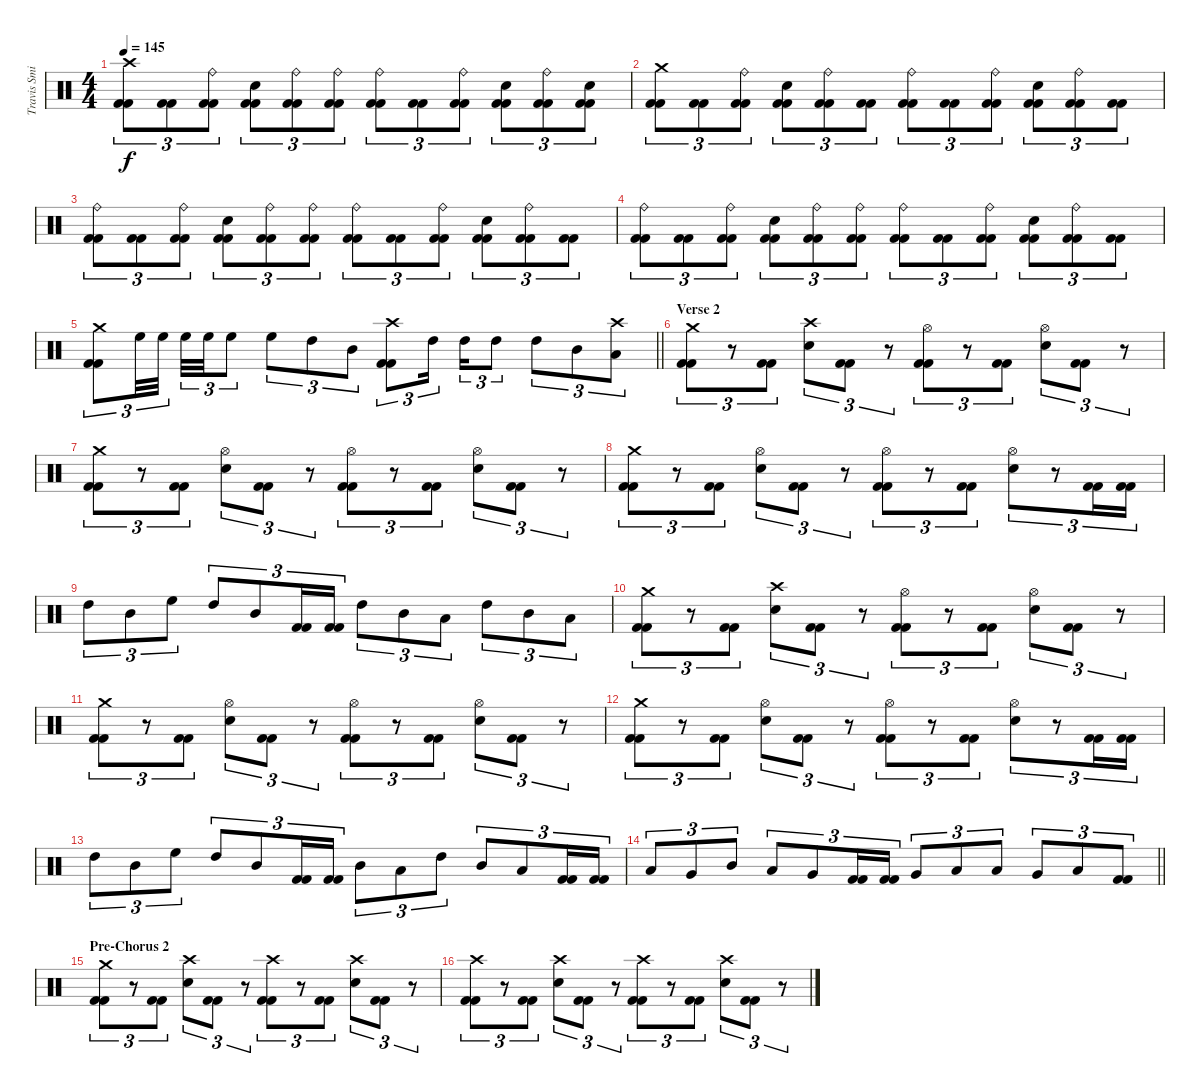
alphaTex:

\track ("Travis Smith" "Travis Smi") {instrument percussion}
\staff {score}
\articulation defaults
\ts (4 4)
\tempo 145
\clef neutral
\ks c
("Crash high (hit)" "Kick (hit) 2" "Kick (hit) 2").8{tu (3 2) dy f} ("Kick (hit) 2" "Kick (hit) 2").8{tu (3 2)} ("Ride (bell)" "Kick (hit) 2" "Kick (hit) 2").8{tu (3 2)} ("Electric Snare (hit)" "Kick (hit) 2" "Kick (hit) 2").8{tu (3 2)} ("Ride (bell)" "Kick (hit) 2" "Kick (hit) 2").8{tu (3 2)} ("Ride (bell)" "Kick (hit) 2" "Kick (hit) 2").8{tu (3 2)} ("Ride (bell)" "Kick (hit) 2" "Kick (hit) 2").8{tu (3 2)} ("Kick (hit) 2" "Kick (hit) 2").8{tu (3 2)} ("Ride (bell)" "Kick (hit) 2" "Kick (hit) 2").8{tu (3 2)} ("Electric Snare (hit)" "Kick (hit) 2" "Kick (hit) 2").8{tu (3 2)} ("Ride (bell)" "Kick (hit) 2" "Kick (hit) 2").8{tu (3 2)} ("Electric Snare (hit)" "Kick (hit) 2" "Kick (hit) 2").8{tu (3 2)} |
("Crash medium (hit)" "Kick (hit) 2" "Kick (hit) 2").8{tu (3 2)} ("Kick (hit) 2" "Kick (hit) 2").8{tu (3 2)} ("Ride (bell)" "Kick (hit) 2" "Kick (hit) 2").8{tu (3 2)} ("Electric Snare (hit)" "Kick (hit) 2" "Kick (hit) 2").8{tu (3 2)} ("Ride (bell)" "Kick (hit) 2" "Kick (hit) 2").8{tu (3 2)} ("Kick (hit) 2" "Kick (hit) 2").8{tu (3 2)} ("Ride (bell)" "Kick (hit) 2" "Kick (hit) 2").8{tu (3 2)} ("Kick (hit) 2" "Kick (hit) 2").8{tu (3 2)} ("Ride (bell)" "Kick (hit) 2" "Kick (hit) 2").8{tu (3 2)} ("Electric Snare (hit)" "Kick (hit) 2" "Kick (hit) 2").8{tu (3 2)} ("Ride (bell)" "Kick (hit) 2" "Kick (hit) 2").8{tu (3 2)} ("Kick (hit) 2" "Kick (hit) 2").8{tu (3 2)} |
("Ride (bell)" "Kick (hit) 2" "Kick (hit) 2").8{tu (3 2)} ("Kick (hit) 2" "Kick (hit) 2").8{tu (3 2)} ("Ride (bell)" "Kick (hit) 2" "Kick (hit) 2").8{tu (3 2)} ("Electric Snare (hit)" "Kick (hit) 2" "Kick (hit) 2").8{tu (3 2)} ("Ride (bell)" "Kick (hit) 2" "Kick (hit) 2").8{tu (3 2)} ("Ride (bell)" "Kick (hit) 2" "Kick (hit) 2").8{tu (3 2)} ("Ride (bell)" "Kick (hit) 2" "Kick (hit) 2").8{tu (3 2)} ("Kick (hit) 2" "Kick (hit) 2").8{tu (3 2)} ("Ride (bell)" "Kick (hit) 2" "Kick (hit) 2").8{tu (3 2)} ("Electric Snare (hit)" "Kick (hit) 2" "Kick (hit) 2").8{tu (3 2)} ("Ride (bell)" "Kick (hit) 2" "Kick (hit) 2").8{tu (3 2)} ("Kick (hit) 2" "Kick (hit) 2").8{tu (3 2)} |
("Ride (bell)" "Kick (hit) 2" "Kick (hit) 2").8{tu (3 2)} ("Kick (hit) 2" "Kick (hit) 2").8{tu (3 2)} ("Ride (bell)" "Kick (hit) 2" "Kick (hit) 2").8{tu (3 2)} ("Electric Snare (hit)" "Kick (hit) 2" "Kick (hit) 2").8{tu (3 2)} ("Ride (bell)" "Kick (hit) 2" "Kick (hit) 2").8{tu (3 2)} ("Ride (bell)" "Kick (hit) 2" "Kick (hit) 2").8{tu (3 2)} ("Ride (bell)" "Kick (hit) 2" "Kick (hit) 2").8{tu (3 2)} ("Kick (hit) 2" "Kick (hit) 2").8{tu (3 2)} ("Ride (bell)" "Kick (hit) 2" "Kick (hit) 2").8{tu (3 2)} ("Electric Snare (hit)" "Kick (hit) 2" "Kick (hit) 2").8{tu (3 2)} ("Ride (bell)" "Kick (hit) 2" "Kick (hit) 2").8{tu (3 2)} ("Kick (hit) 2" "Kick (hit) 2").8{tu (3 2)} |
\barLineRight lightlight
("Crash medium (hit)" "Kick (hit) 2" "Kick (hit) 2").8{tu (3 2)} "High Floor Tom (hit)".32{tu (3 2)} "High Floor Tom (hit)".32{tu (3 2) beam splitsecondary} "High Floor Tom (hit)".32{tu (3 2)} "High Floor Tom (hit)".32{tu (3 2)} "High Floor Tom (hit)".8{tu (3 2)} "High Floor Tom (hit)".8{tu (3 2)} "High Tom (hit)".8{tu (3 2)} "Mid Tom (hit)".8{tu (3 2)} ("Crash high (hit)" "Kick (hit) 2" "Kick (hit) 2").8{tu (3 2)} "High Tom (hit)".16{tu (3 2) beam splitsecondary} "High Tom (hit)".16{tu (3 2)} "High Tom (hit)".8{tu (3 2)} "High Tom (hit)".8{tu (3 2)} "Mid Tom (hit)".8{tu (3 2)} ("Crash high (hit)" "Low Tom (hit)").8{tu (3 2)} |
\section ("" "Verse 2")
("Crash medium (hit)" "Kick (hit) 2" "Kick (hit) 2").8{tu (3 2)} r.8{tu (3 2)} ("Kick (hit) 2" "Kick (hit) 2").8{tu (3 2)} ("Crash high (hit)" "Electric Snare (hit)").8{tu (3 2)} ("Kick (hit) 2" "Kick (hit) 2").8{tu (3 2)} r.8{tu (3 2)} ("Hi-Hat (open)" "Kick (hit) 2" "Kick (hit) 2").8{tu (3 2)} r.8{tu (3 2)} ("Kick (hit) 2" "Kick (hit) 2").8{tu (3 2)} ("Hi-Hat (open)" "Electric Snare (hit)").8{tu (3 2)} ("Kick (hit) 2" "Kick (hit) 2").8{tu (3 2)} r.8{tu (3 2)} |
("Crash medium (hit)" "Kick (hit) 2" "Kick (hit) 2").8{tu (3 2)} r.8{tu (3 2)} ("Kick (hit) 2" "Kick (hit) 2").8{tu (3 2)} ("Hi-Hat (open)" "Electric Snare (hit)").8{tu (3 2)} ("Kick (hit) 2" "Kick (hit) 2").8{tu (3 2)} r.8{tu (3 2)} ("Hi-Hat (open)" "Kick (hit) 2" "Kick (hit) 2").8{tu (3 2)} r.8{tu (3 2)} ("Kick (hit) 2" "Kick (hit) 2").8{tu (3 2)} ("Hi-Hat (open)" "Electric Snare (hit)").8{tu (3 2)} ("Kick (hit) 2" "Kick (hit) 2").8{tu (3 2)} r.8{tu (3 2)} |
("Crash medium (hit)" "Kick (hit) 2" "Kick (hit) 2").8{tu (3 2)} r.8{tu (3 2)} ("Kick (hit) 2" "Kick (hit) 2").8{tu (3 2)} ("Hi-Hat (open)" "Electric Snare (hit)").8{tu (3 2)} ("Kick (hit) 2" "Kick (hit) 2").8{tu (3 2)} r.8{tu (3 2)} ("Hi-Hat (open)" "Kick (hit) 2" "Kick (hit) 2").8{tu (3 2)} r.8{tu (3 2)} ("Kick (hit) 2" "Kick (hit) 2").8{tu (3 2)} ("Hi-Hat (open)" "Electric Snare (hit)").8{tu (3 2)} r.8{tu (3 2)} ("Kick (hit) 2" "Kick (hit) 2").16{tu (3 2)} ("Kick (hit) 2" "Kick (hit) 2").16{tu (3 2)} |
"High Tom (hit)".8{tu (3 2)} "Mid Tom (hit)".8{tu (3 2)} "High Floor Tom (hit)".8{tu (3 2)} "High Tom (hit)".8{tu (3 2)} "Mid Tom (hit)".8{tu (3 2)} ("Kick (hit) 2" "Kick (hit) 2").16{tu (3 2)} ("Kick (hit) 2" "Kick (hit) 2").16{tu (3 2)} "High Tom (hit)".8{tu (3 2)} "Mid Tom (hit)".8{tu (3 2)} "Low Tom (hit)".8{tu (3 2)} "High Tom (hit)".8{tu (3 2)} "Mid Tom (hit)".8{tu (3 2)} "Low Tom (hit)".8{tu (3 2)} |
("Crash medium (hit)" "Kick (hit) 2" "Kick (hit) 2").8{tu (3 2)} r.8{tu (3 2)} ("Kick (hit) 2" "Kick (hit) 2").8{tu (3 2)} ("Crash high (hit)" "Electric Snare (hit)").8{tu (3 2)} ("Kick (hit) 2" "Kick (hit) 2").8{tu (3 2)} r.8{tu (3 2)} ("Hi-Hat (open)" "Kick (hit) 2" "Kick (hit) 2").8{tu (3 2)} r.8{tu (3 2)} ("Kick (hit) 2" "Kick (hit) 2").8{tu (3 2)} ("Hi-Hat (open)" "Electric Snare (hit)").8{tu (3 2)} ("Kick (hit) 2" "Kick (hit) 2").8{tu (3 2)} r.8{tu (3 2)} |
("Crash medium (hit)" "Kick (hit) 2" "Kick (hit) 2").8{tu (3 2)} r.8{tu (3 2)} ("Kick (hit) 2" "Kick (hit) 2").8{tu (3 2)} ("Hi-Hat (open)" "Electric Snare (hit)").8{tu (3 2)} ("Kick (hit) 2" "Kick (hit) 2").8{tu (3 2)} r.8{tu (3 2)} ("Hi-Hat (open)" "Kick (hit) 2" "Kick (hit) 2").8{tu (3 2)} r.8{tu (3 2)} ("Kick (hit) 2" "Kick (hit) 2").8{tu (3 2)} ("Hi-Hat (open)" "Electric Snare (hit)").8{tu (3 2)} ("Kick (hit) 2" "Kick (hit) 2").8{tu (3 2)} r.8{tu (3 2)} |
("Crash medium (hit)" "Kick (hit) 2" "Kick (hit) 2").8{tu (3 2)} r.8{tu (3 2)} ("Kick (hit) 2" "Kick (hit) 2").8{tu (3 2)} ("Hi-Hat (open)" "Electric Snare (hit)").8{tu (3 2)} ("Kick (hit) 2" "Kick (hit) 2").8{tu (3 2)} r.8{tu (3 2)} ("Hi-Hat (open)" "Kick (hit) 2" "Kick (hit) 2").8{tu (3 2)} r.8{tu (3 2)} ("Kick (hit) 2" "Kick (hit) 2").8{tu (3 2)} ("Hi-Hat (open)" "Electric Snare (hit)").8{tu (3 2)} r.8{tu (3 2)} ("Kick (hit) 2" "Kick (hit) 2").16{tu (3 2)} ("Kick (hit) 2" "Kick (hit) 2").16{tu (3 2)} |
"High Tom (hit)".8{tu (3 2)} "Mid Tom (hit)".8{tu (3 2)} "High Floor Tom (hit)".8{tu (3 2)} "High Tom (hit)".8{tu (3 2)} "Mid Tom (hit)".8{tu (3 2)} ("Kick (hit) 2" "Kick (hit) 2").16{tu (3 2)} ("Kick (hit) 2" "Kick (hit) 2").16{tu (3 2)} "Mid Tom (hit)".8{tu (3 2)} "Low Tom (hit)".8{tu (3 2)} "High Tom (hit)".8{tu (3 2)} "Mid Tom (hit)".8{tu (3 2)} "Low Tom (hit)".8{tu (3 2)} ("Kick (hit) 2" "Kick (hit) 2").16{tu (3 2)} ("Kick (hit) 2" "Kick (hit) 2").16{tu (3 2)} |
\barLineRight lightlight "Low Tom (hit)".8{tu (3 2)} "Very Low Tom (hit)".8{tu (3 2)} "Mid Tom (hit)".8{tu (3 2)} "Low Tom (hit)".8{tu (3 2)} "Very Low Tom (hit)".8{tu (3 2)}
("Kick (hit) 2" "Kick (hit) 2").16{tu (3 2)} ("Kick (hit) 2" "Kick (hit) 2").16{tu (3 2)} "Very Low Tom (hit)".8{tu (3 2)} "Low Floor Tom (hit)".8{tu (3 2)} "Low Tom (hit)".8{tu (3 2)} "Very Low Tom (hit)".8{tu (3 2)} "Low Floor Tom (hit)".8{tu (3 2)} ("Kick (hit) 2" "Kick (hit) 2").8{tu (3 2)} |
\section ("" "Pre-Chorus 2")
("Crash medium (hit)" "Kick (hit) 2" "Kick (hit) 2").8{tu (3 2)} r.8{tu (3 2)} ("Kick (hit) 2" "Kick (hit) 2").8{tu (3 2)} ("Crash high (hit)" "Electric Snare (hit)").8{tu (3 2)} ("Kick (hit) 2" "Kick (hit) 2").8{tu (3 2)} r.8{tu (3 2)} ("Crash high (hit)" "Kick (hit) 2" "Kick (hit) 2").8{tu (3 2)} r.8{tu (3 2)} ("Kick (hit) 2" "Kick (hit) 2").8{tu (3 2)} ("Crash high (hit)" "Electric Snare (hit)").8{tu (3 2)} ("Kick (hit) 2" "Kick (hit) 2").8{tu (3 2)} r.8{tu (3 2)} |
("Crash high (hit)" "Kick (hit) 2" "Kick (hit) 2").8{tu (3 2)} r.8{tu (3 2)} ("Kick (hit) 2" "Kick (hit) 2").8{tu (3 2)} ("Crash high (hit)" "Electric Snare (hit)").8{tu (3 2)} ("Kick (hit) 2" "Kick (hit) 2").8{tu (3 2)} r.8{tu (3 2)} ("Crash high (hit)" "Kick (hit) 2" "Kick (hit) 2").8{tu (3 2)} r.8{tu (3 2)} ("Kick (hit) 2" "Kick (hit) 2").8{tu (3 2)} ("Crash high (hit)" "Electric Snare (hit)").8{tu (3 2)} ("Kick (hit) 2" "Kick (hit) 2").8{tu (3 2)} r.8{tu (3 2)}
